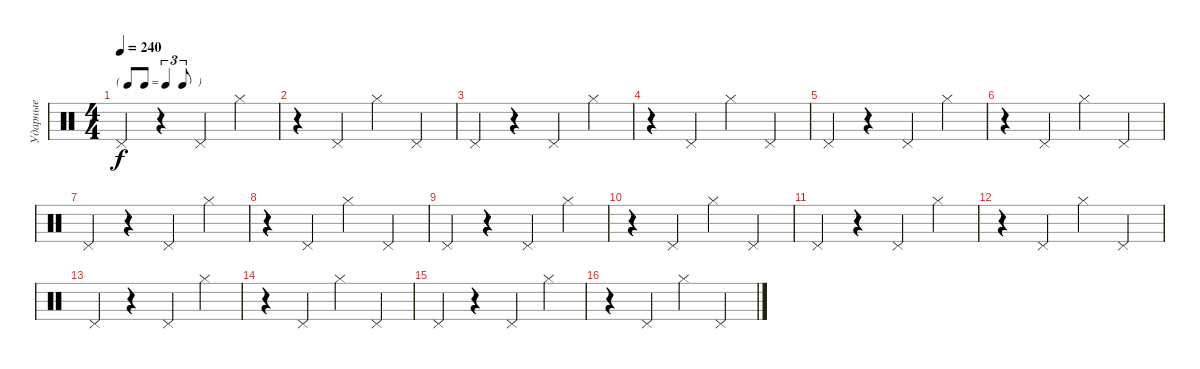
\track ("Ударные" "Ударные") {instrument percussion}
\staff {score}
\articulation defaults
\ts (4 4)
\tf triplet8th
\tempo 240
\clef neutral
\ks c "Pedal Hi-Hat (hit)".4{dy f}
r.4 "Pedal Hi-Hat (hit)".4 "Hi-Hat (closed)".4 |
r.4 "Pedal Hi-Hat (hit)".4 "Hi-Hat (closed)".4 "Pedal Hi-Hat (hit)".4 |
"Pedal Hi-Hat (hit)".4 r.4 "Pedal Hi-Hat (hit)".4 "Hi-Hat (closed)".4 |
r.4 "Pedal Hi-Hat (hit)".4 "Hi-Hat (closed)".4 "Pedal Hi-Hat (hit)".4 |
"Pedal Hi-Hat (hit)".4 r.4 "Pedal Hi-Hat (hit)".4 "Hi-Hat (closed)".4 |
r.4 "Pedal Hi-Hat (hit)".4 "Hi-Hat (closed)".4 "Pedal Hi-Hat (hit)".4 |
"Pedal Hi-Hat (hit)".4 r.4 "Pedal Hi-Hat (hit)".4 "Hi-Hat (closed)".4 |
r.4 "Pedal Hi-Hat (hit)".4 "Hi-Hat (closed)".4 "Pedal Hi-Hat (hit)".4 |
"Pedal Hi-Hat (hit)".4 r.4 "Pedal Hi-Hat (hit)".4 "Hi-Hat (closed)".4 |
r.4 "Pedal Hi-Hat (hit)".4 "Hi-Hat (closed)".4 "Pedal Hi-Hat (hit)".4 |
"Pedal Hi-Hat (hit)".4 r.4 "Pedal Hi-Hat (hit)".4 "Hi-Hat (closed)".4 |
r.4 "Pedal Hi-Hat (hit)".4 "Hi-Hat (closed)".4 "Pedal Hi-Hat (hit)".4 |
"Pedal Hi-Hat (hit)".4 r.4 "Pedal Hi-Hat (hit)".4 "Hi-Hat (closed)".4 |
r.4 "Pedal Hi-Hat (hit)".4 "Hi-Hat (closed)".4 "Pedal Hi-Hat (hit)".4 |
"Pedal Hi-Hat (hit)".4 r.4 "Pedal Hi-Hat (hit)".4 "Hi-Hat (closed)".4 |
r.4 "Pedal Hi-Hat (hit)".4 "Hi-Hat (closed)".4 "Pedal Hi-Hat (hit)".4
